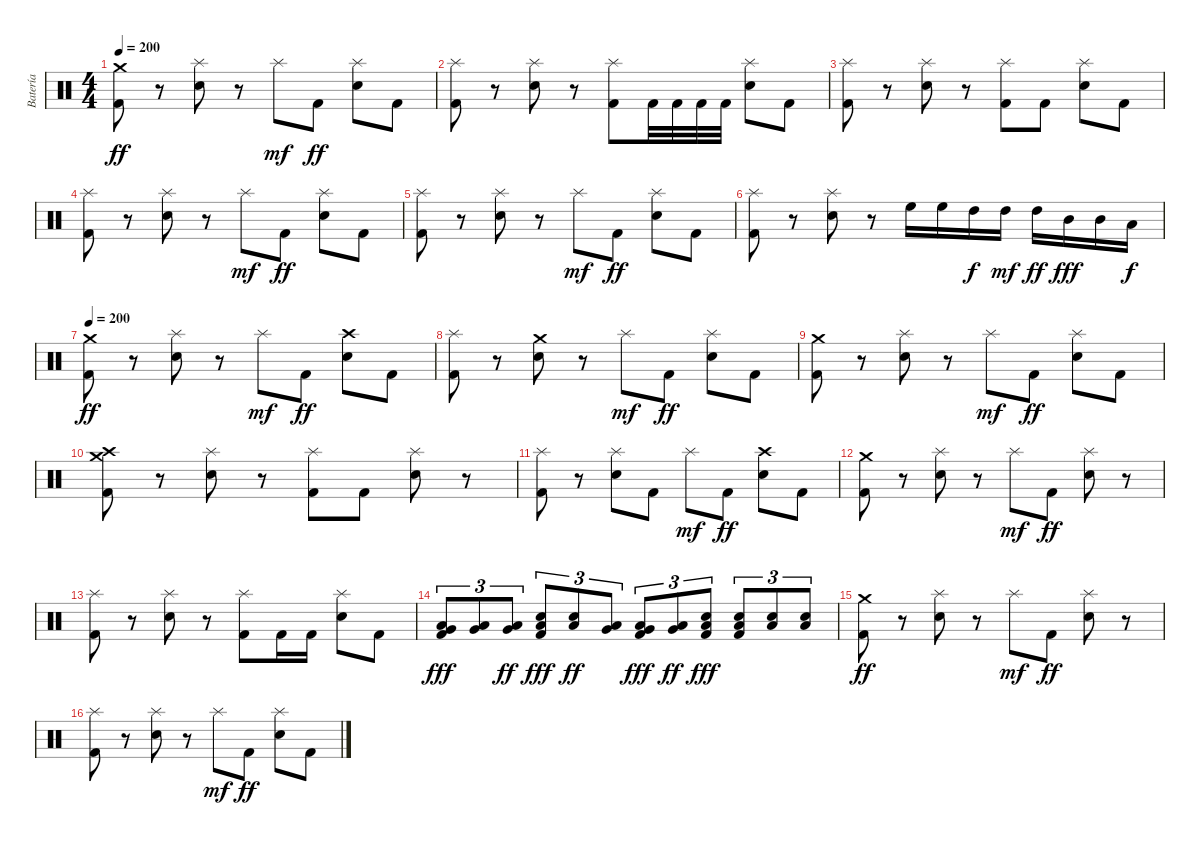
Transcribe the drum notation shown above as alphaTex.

\track ("Batería" "Batería") {instrument percussion}
\staff {score}
\articulation defaults
\ts (4 4)
\tempo 200
\clef neutral
\ks c
("Crash medium (hit)" "Kick (hit) 2").8{dy ff} r.8 ("Splash (hit)" "Electric Snare (hit)").8 r.8 "Splash (hit)".8{dy mf} "Kick (hit) 2".8{dy ff} ("Splash (hit)" "Electric Snare (hit)").8 "Kick (hit) 2".8 |
("Splash (hit)" "Kick (hit) 2").8 r.8 ("Splash (hit)" "Electric Snare (hit)").8 r.8 ("Splash (hit)" "Kick (hit) 2").8 "Kick (hit) 2".32 "Kick (hit) 2".32 "Kick (hit) 2".32 "Kick (hit) 2".32 ("Splash (hit)" "Electric Snare (hit)").8 "Kick (hit) 2".8 |
("Splash (hit)" "Kick (hit) 2").8 r.8 ("Splash (hit)" "Electric Snare (hit)").8 r.8 ("Splash (hit)" "Kick (hit) 2").8 "Kick (hit) 2".8 ("Splash (hit)" "Electric Snare (hit)").8 "Kick (hit) 2".8 |
("Splash (hit)" "Kick (hit) 2").8 r.8 ("Splash (hit)" "Electric Snare (hit)").8 r.8 "Splash (hit)".8{dy mf} "Kick (hit) 2".8{dy ff} ("Splash (hit)" "Electric Snare (hit)").8 "Kick (hit) 2".8 |
("Splash (hit)" "Kick (hit) 2").8 r.8 ("Splash (hit)" "Electric Snare (hit)").8 r.8 "Splash (hit)".8{dy mf} "Kick (hit) 2".8{dy ff} ("Splash (hit)" "Electric Snare (hit)").8 "Kick (hit) 2".8 |
("Splash (hit)" "Kick (hit) 2").8 r.8 ("Splash (hit)" "Electric Snare (hit)").8 r.8 "High Floor Tom (hit)".16 "High Floor Tom (hit)".16 "High Tom (hit)".16{dy f} "High Tom (hit)".16{dy mf} "High Tom (hit)".16{dy ff} "Mid Tom (hit)".16{dy fff} "Mid Tom (hit)".16 "Low Tom (hit)".16{dy f} |
\tempo 200
("Crash medium (hit)" "Kick (hit) 2").8{dy ff} r.8 ("Splash (hit)" "Electric Snare (hit)").8 r.8 "Splash (hit)".8{dy mf} "Kick (hit) 2".8{dy ff} ("Crash high (hit)" "Electric Snare (hit)").8 "Kick (hit) 2".8 |
("Splash (hit)" "Kick (hit) 2").8 r.8 ("Crash medium (hit)" "Electric Snare (hit)").8 r.8 "Splash (hit)".8{dy mf} "Kick (hit) 2".8{dy ff} ("Splash (hit)" "Electric Snare (hit)").8 "Kick (hit) 2".8 |
("Crash medium (hit)" "Kick (hit) 2").8 r.8 ("Splash (hit)" "Electric Snare (hit)").8 r.8 "Splash (hit)".8{dy mf} "Kick (hit) 2".8{dy ff} ("Splash (hit)" "Electric Snare (hit)").8 "Kick (hit) 2".8 |
("Crash high (hit)" "Crash medium (hit)" "Kick (hit) 2").8 r.8 ("Splash (hit)" "Electric Snare (hit)").8 r.8 ("Splash (hit)" "Kick (hit) 2").8 "Kick (hit) 2".8 ("Splash (hit)" "Electric Snare (hit)").8 r.8 |
("Splash (hit)" "Kick (hit) 2").8 r.8 ("Splash (hit)" "Electric Snare (hit)").8 "Kick (hit) 2".8 "Splash (hit)".8{dy mf} "Kick (hit) 2".8{dy ff} ("Crash high (hit)" "Electric Snare (hit)").8 "Kick (hit) 2".8 |
("Crash medium (hit)" "Kick (hit) 2").8 r.8 ("Splash (hit)" "Electric Snare (hit)").8 r.8 "Splash (hit)".8{dy mf} "Kick (hit) 2".8{dy ff} ("Splash (hit)" "Electric Snare (hit)").8 r.8 |
("Splash (hit)" "Kick (hit) 2").8 r.8 ("Splash (hit)" "Electric Snare (hit)").8 r.8 ("Splash (hit)" "Kick (hit) 2").8 "Kick (hit) 2".16 "Kick (hit) 2".16 ("Splash (hit)" "Electric Snare (hit)").8 "Kick (hit) 2".8 |
("Low Tom (hit)" "Very Low Tom (hit)" "Kick (hit) 2").8{tu (3 2) dy fff} ("Low Tom (hit)" "Very Low Tom (hit)").8{tu (3 2)} ("Low Tom (hit)" "Very Low Tom (hit)").8{tu (3 2) dy ff} ("Low Tom (hit)" "Electric Snare (hit)" "Kick (hit) 2").8{tu (3 2) dy fff} ("Low Tom (hit)" "Electric Snare (hit)").8{tu (3 2) dy ff} ("Low Tom (hit)" "Very Low Tom (hit)").8{tu (3 2)} ("Low Tom (hit)" "Very Low Tom (hit)" "Kick (hit) 2").8{tu (3 2) dy fff} ("Low Tom (hit)" "Very Low Tom (hit)").8{tu (3 2) dy ff} ("Low Tom (hit)" "Electric Snare (hit)" "Kick (hit) 2").8{tu (3 2) dy fff} ("Low Tom (hit)" "Electric Snare (hit)" "Kick (hit) 2").8{tu (3 2)} ("Low Tom (hit)" "Electric Snare (hit)").8{tu (3 2)} ("Low Tom (hit)" "Electric Snare (hit)").8{tu (3 2)} |
("Crash medium (hit)" "Kick (hit) 2").8{dy ff} r.8 ("Splash (hit)" "Electric Snare (hit)").8 r.8 "Splash (hit)".8{dy mf} "Kick (hit) 2".8{dy ff} ("Splash (hit)" "Electric Snare (hit)").8 r.8 |
("Splash (hit)" "Kick (hit) 2").8 r.8 ("Splash (hit)" "Electric Snare (hit)").8 r.8 "Splash (hit)".8{dy mf} "Kick (hit) 2".8{dy ff} ("Splash (hit)" "Electric Snare (hit)").8 "Kick (hit) 2".8
